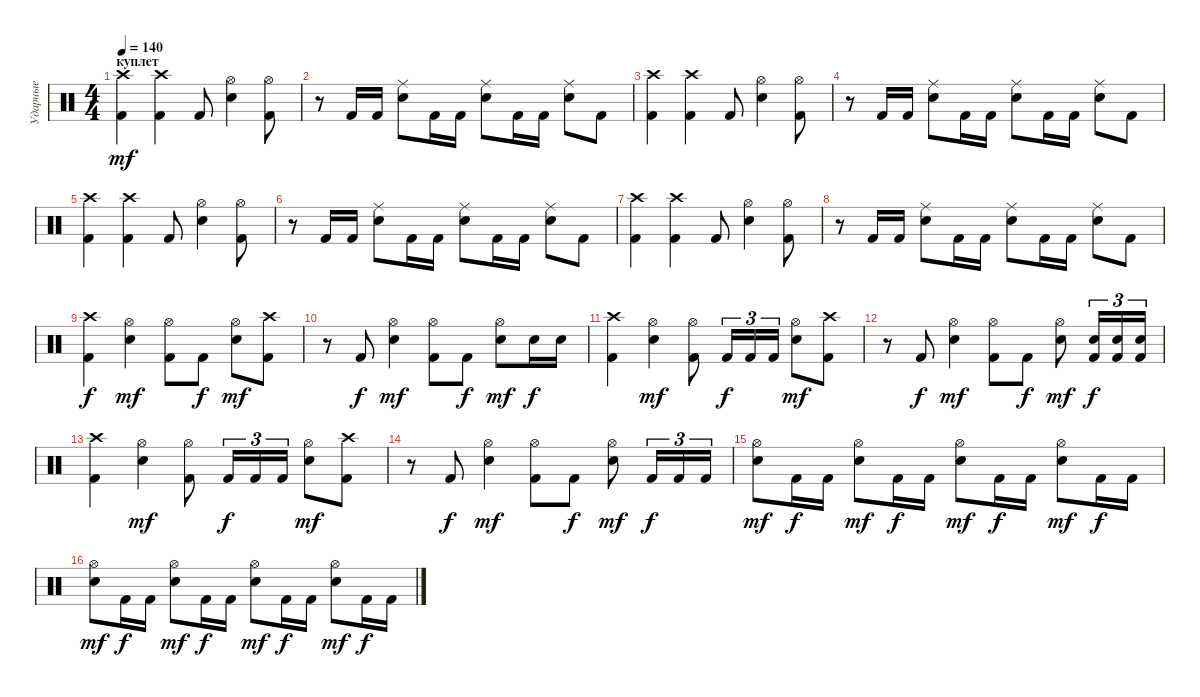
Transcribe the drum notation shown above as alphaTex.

\track ("Ударные" "Ударные") {instrument percussion}
\staff {score}
\articulation defaults
\ts (4 4)
\section ("" "куплет")
\tempo 140
\clef neutral
\ks c
("Kick (hit) 2" "Crash high (hit)").4{dy mf} ("Kick (hit) 2" "Crash high (hit)").4 "Kick (hit) 2".8 ("Snare (hit) 2" "Hi-Hat (open)").4 ("Kick (hit) 2" "Hi-Hat (open)").8 |
r.8 "Kick (hit) 2".16 "Kick (hit) 2".16 ("Snare (hit) 2" "Ride (middle)").8 "Kick (hit) 2".16 "Kick (hit) 2".16 ("Snare (hit) 2" "Ride (middle)").8 "Kick (hit) 2".16 "Kick (hit) 2".16 ("Snare (hit) 2" "Ride (middle)").8 "Kick (hit) 2".8 |
("Kick (hit) 2" "Crash high (hit)").4 ("Kick (hit) 2" "Crash high (hit)").4 "Kick (hit) 2".8 ("Snare (hit) 2" "Hi-Hat (open)").4 ("Kick (hit) 2" "Hi-Hat (open)").8 |
r.8 "Kick (hit) 2".16 "Kick (hit) 2".16 ("Snare (hit) 2" "Ride (middle)").8 "Kick (hit) 2".16 "Kick (hit) 2".16 ("Snare (hit) 2" "Ride (middle)").8 "Kick (hit) 2".16 "Kick (hit) 2".16 ("Snare (hit) 2" "Ride (middle)").8 "Kick (hit) 2".8 |
("Kick (hit) 2" "Crash high (hit)").4 ("Kick (hit) 2" "Crash high (hit)").4 "Kick (hit) 2".8 ("Snare (hit) 2" "Hi-Hat (open)").4 ("Kick (hit) 2" "Hi-Hat (open)").8 |
r.8 "Kick (hit) 2".16 "Kick (hit) 2".16 ("Snare (hit) 2" "Ride (middle)").8 "Kick (hit) 2".16 "Kick (hit) 2".16 ("Snare (hit) 2" "Ride (middle)").8 "Kick (hit) 2".16 "Kick (hit) 2".16 ("Snare (hit) 2" "Ride (middle)").8 "Kick (hit) 2".8 |
("Kick (hit) 2" "Crash high (hit)").4 ("Kick (hit) 2" "Crash high (hit)").4 "Kick (hit) 2".8 ("Snare (hit) 2" "Hi-Hat (open)").4 ("Kick (hit) 2" "Hi-Hat (open)").8 |
r.8 "Kick (hit) 2".16 "Kick (hit) 2".16 ("Snare (hit) 2" "Ride (middle)").8 "Kick (hit) 2".16 "Kick (hit) 2".16 ("Snare (hit) 2" "Ride (middle)").8 "Kick (hit) 2".16 "Kick (hit) 2".16 ("Snare (hit) 2" "Ride (middle)").8 "Kick (hit) 2".8 |
("Kick (hit) 2" "Crash high (hit)").4{dy f} ("Snare (hit) 2" "Hi-Hat (open)").4{dy mf} ("Kick (hit) 2" "Hi-Hat (open)").8 "Kick (hit) 2".8{dy f} ("Snare (hit) 2" "Hi-Hat (open)").8{dy mf} ("Kick (hit) 2" "Crash high (hit)").8 |
r.8 "Kick (hit) 2".8{dy f} ("Snare (hit) 2" "Hi-Hat (open)").4{dy mf} ("Kick (hit) 2" "Hi-Hat (open)").8 "Kick (hit) 2".8{dy f} ("Snare (hit) 2" "Hi-Hat (open)").8{dy mf} "Snare (hit) 2".16{dy f} "Snare (hit) 2".16 |
("Kick (hit) 2" "Crash high (hit)").4 ("Snare (hit) 2" "Hi-Hat (open)").4{dy mf} ("Kick (hit) 2" "Hi-Hat (open)").8 "Kick (hit) 2".16{tu (3 2) dy f} "Kick (hit) 2".16{tu (3 2)} "Kick (hit) 2".16{tu (3 2)} ("Snare (hit) 2" "Hi-Hat (open)").8{dy mf} ("Kick (hit) 2" "Crash high (hit)").8 |
r.8 "Kick (hit) 2".8{dy f} ("Snare (hit) 2" "Hi-Hat (open)").4{dy mf} ("Kick (hit) 2" "Hi-Hat (open)").8 "Kick (hit) 2".8{dy f} ("Snare (hit) 2" "Hi-Hat (open)").8{dy mf} ("Kick (hit) 2" "Snare (hit) 2").16{tu (3 2) dy f} ("Kick (hit) 2" "Snare (hit) 2").16{tu (3 2)} ("Kick (hit) 2" "Snare (hit) 2").16{tu (3 2)} |
("Kick (hit) 2" "Crash high (hit)").4 ("Snare (hit) 2" "Hi-Hat (open)").4{dy mf} ("Kick (hit) 2" "Hi-Hat (open)").8 "Kick (hit) 2".16{tu (3 2) dy f} "Kick (hit) 2".16{tu (3 2)} "Kick (hit) 2".16{tu (3 2)} ("Snare (hit) 2" "Hi-Hat (open)").8{dy mf} ("Kick (hit) 2" "Crash high (hit)").8 |
r.8 "Kick (hit) 2".8{dy f} ("Snare (hit) 2" "Hi-Hat (open)").4{dy mf} ("Kick (hit) 2" "Hi-Hat (open)").8 "Kick (hit) 2".8{dy f} ("Snare (hit) 2" "Hi-Hat (open)").8{dy mf} "Kick (hit) 2".16{tu (3 2) dy f} "Kick (hit) 2".16{tu (3 2)} "Kick (hit) 2".16{tu (3 2)} |
("Snare (hit) 2" "Hi-Hat (open)").8{dy mf} "Kick (hit) 2".16{dy f} "Kick (hit) 2".16 ("Snare (hit) 2" "Hi-Hat (open)").8{dy mf} "Kick (hit) 2".16{dy f} "Kick (hit) 2".16 ("Snare (hit) 2" "Hi-Hat (open)").8{dy mf} "Kick (hit) 2".16{dy f} "Kick (hit) 2".16 ("Snare (hit) 2" "Hi-Hat (open)").8{dy mf} "Kick (hit) 2".16{dy f} "Kick (hit) 2".16 |
("Snare (hit) 2" "Hi-Hat (open)").8{dy mf} "Kick (hit) 2".16{dy f} "Kick (hit) 2".16 ("Snare (hit) 2" "Hi-Hat (open)").8{dy mf} "Kick (hit) 2".16{dy f} "Kick (hit) 2".16 ("Snare (hit) 2" "Hi-Hat (open)").8{dy mf} "Kick (hit) 2".16{dy f} "Kick (hit) 2".16 ("Snare (hit) 2" "Hi-Hat (open)").8{dy mf} "Kick (hit) 2".16{dy f} "Kick (hit) 2".16
